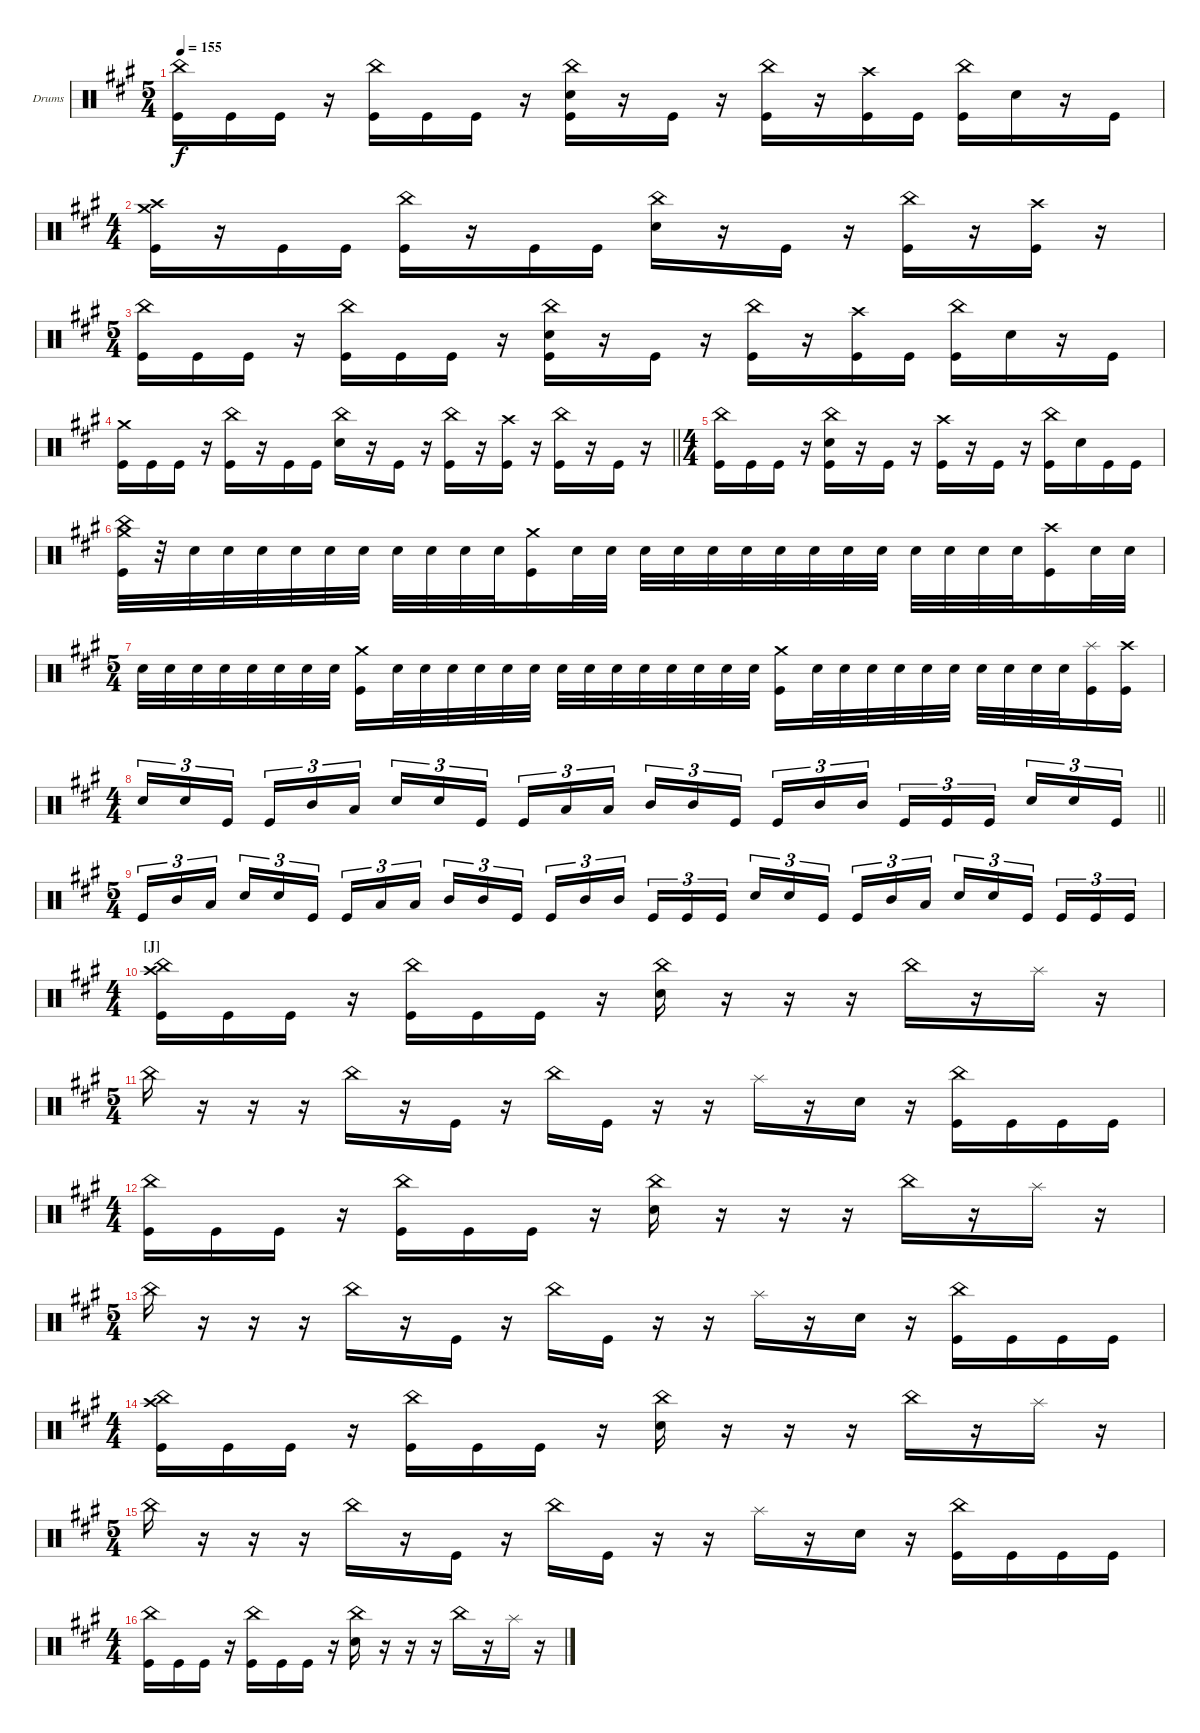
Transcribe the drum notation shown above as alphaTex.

\bracketExtendMode groupsimilarinstruments
\firstSystemTrackNameOrientation horizontal
\otherSystemsTrackNameOrientation horizontal
\track ("Drumkit" "Drums") {instrument percussion}
\staff {score}
\articulation defaults
\ts (5 4)
\tempo 155
\clef neutral
\ks a
("China (hit)" "Kick (hit)").16{dy f} "Kick (hit)".16 "Kick (hit)".16 r.16 ("China (hit)" "Kick (hit)").16 "Kick (hit)".16 "Kick (hit)".16 r.16 ("China (hit)" "Snare (hit) 2" "Kick (hit)").16 r.16 "Kick (hit)".16 r.16 ("China (hit)" "Kick (hit)").16 r.16 ("Crash high (hit)" "Kick (hit)").16 "Kick (hit)".16 ("China (hit)" "Kick (hit)").16 "Snare (hit) 2".16 r.16 "Kick (hit)".16 |
\ts (4 4)
("Crash medium (hit)" "Crash high (hit)" "Kick (hit)").16 r.16 "Kick (hit)".16 "Kick (hit)".16 ("China (hit)" "Kick (hit)").16 r.16 "Kick (hit)".16 "Kick (hit)".16 ("China (hit)" "Snare (hit) 2").16 r.16 "Kick (hit)".16 r.16 ("China (hit)" "Kick (hit)").16 r.16 ("Crash high (hit)" "Kick (hit)").16 r.16 |
\ts (5 4)
("China (hit)" "Kick (hit)").16 "Kick (hit)".16 "Kick (hit)".16 r.16 ("China (hit)" "Kick (hit)").16 "Kick (hit)".16 "Kick (hit)".16 r.16 ("China (hit)" "Snare (hit) 2" "Kick (hit)").16 r.16 "Kick (hit)".16 r.16 ("China (hit)" "Kick (hit)").16 r.16 ("Crash high (hit)" "Kick (hit)").16 "Kick (hit)".16 ("China (hit)" "Kick (hit)").16 "Snare (hit) 2".16 r.16 "Kick (hit)".16 |
\barLineRight lightlight
("Crash medium (hit)" "Kick (hit)").16 "Kick (hit)".16 "Kick (hit)".16 r.16 ("China (hit)" "Kick (hit)").16 r.16 "Kick (hit)".16 "Kick (hit)".16 ("China (hit)" "Snare (hit) 2").16 r.16 "Kick (hit)".16 r.16 ("China (hit)" "Kick (hit)").16 r.16 ("Crash high (hit)" "Kick (hit)").16 r.16 ("China (hit)" "Kick (hit)").16 r.16 "Kick (hit)".16 r.16 |
\ts (4 4)
("China (hit)" "Kick (hit)").16 "Kick (hit)".16 "Kick (hit)".16 r.16 ("China (hit)" "Snare (hit) 2" "Kick (hit)").16 r.16 "Kick (hit)".16 r.16 ("Crash high (hit)" "Kick (hit)").16 r.16 "Kick (hit)".16 r.16 ("China (hit)" "Kick (hit)").16 "Snare (hit) 2".16 "Kick (hit)".16 "Kick (hit)".16 |
("Crash medium (hit)" "China (hit)" "Kick (hit)").32 r.32 "Snare (hit) 2".32 "Snare (hit) 2".32 "Snare (hit) 2".32 "Snare (hit) 2".32 "Snare (hit) 2".32 "Snare (hit) 2".32 "Snare (hit) 2".32 "Snare (hit) 2".32 "Snare (hit) 2".32 "Snare (hit) 2".32 ("Crash medium (hit)" "Kick (hit)").16 "Snare (hit) 2".32 "Snare (hit) 2".32 "Snare (hit) 2".32 "Snare (hit) 2".32 "Snare (hit) 2".32 "Snare (hit) 2".32 "Snare (hit) 2".32 "Snare (hit) 2".32 "Snare (hit) 2".32 "Snare (hit) 2".32 "Snare (hit) 2".32 "Snare (hit) 2".32 "Snare (hit) 2".32 "Snare (hit) 2".32 ("Crash high (hit)" "Kick (hit)").16 "Snare (hit) 2".32 "Snare (hit) 2".32 |
\ts (5 4)
"Snare (hit) 2".32 "Snare (hit) 2".32 "Snare (hit) 2".32 "Snare (hit) 2".32 "Snare (hit) 2".32 "Snare (hit) 2".32 "Snare (hit) 2".32 "Snare (hit) 2".32 ("Crash medium (hit)" "Kick (hit)").16 "Snare (hit) 2".32 "Snare (hit) 2".32 "Snare (hit) 2".32 "Snare (hit) 2".32 "Snare (hit) 2".32 "Snare (hit) 2".32 "Snare (hit) 2".32 "Snare (hit) 2".32 "Snare (hit) 2".32 "Snare (hit) 2".32 "Snare (hit) 2".32 "Snare (hit) 2".32 "Snare (hit) 2".32 "Snare (hit) 2".32 ("Crash medium (hit)" "Kick (hit)").16 "Snare (hit) 2".32 "Snare (hit) 2".32 "Snare (hit) 2".32 "Snare (hit) 2".32 "Snare (hit) 2".32 "Snare (hit) 2".32 "Snare (hit) 2".32 "Snare (hit) 2".32 "Snare (hit) 2".32 "Snare (hit) 2".32 ("Splash (hit)" "Kick (hit)").16 ("Crash high (hit)" "Kick (hit)").16 |
\ts (4 4)
\barLineRight lightlight "Snare (hit) 2".16{tu (3 2)} "Snare (hit) 2".16{tu (3 2)} "Kick (hit)".16{tu (3 2)} "Kick (hit)".16{tu (3 2)} "Mid Tom (hit)".16{tu (3 2)} "Low Tom (hit)".16{tu (3 2)} "Snare (hit) 2".16{tu (3 2)} "Snare (hit) 2".16{tu (3 2)} "Kick (hit)".16{tu (3 2)} "Kick (hit)".16{tu (3 2)} "Low Tom (hit)".16{tu (3 2)} "Low Tom (hit)".16{tu (3 2)} "Mid Tom (hit)".16{tu (3 2)} "Mid Tom (hit)".16{tu (3 2)} "Kick (hit)".16{tu (3 2)} "Kick (hit)".16{tu (3 2)} "Mid Tom (hit)".16{tu (3 2)} "Mid Tom (hit)".16{tu (3 2)} "Kick (hit)".16{tu (3 2)} "Kick (hit)".16{tu (3 2)} "Kick (hit)".16{tu (3 2)} "Snare (hit) 2".16{tu (3 2)} "Snare (hit) 2".16{tu (3 2)} "Kick (hit)".16{tu (3 2)}
|
\ts (5 4)
"Kick (hit)".16{tu (3 2)} "Mid Tom (hit)".16{tu (3 2)} "Low Tom (hit)".16{tu (3 2)} "Snare (hit) 2".16{tu (3 2)} "Snare (hit) 2".16{tu (3 2)} "Kick (hit)".16{tu (3 2)} "Kick (hit)".16{tu (3 2)} "Low Tom (hit)".16{tu (3 2)} "Low Tom (hit)".16{tu (3 2)} "Mid Tom (hit)".16{tu (3 2)} "Mid Tom (hit)".16{tu (3 2)} "Kick (hit)".16{tu (3 2)} "Kick (hit)".16{tu (3 2)} "Mid Tom (hit)".16{tu (3 2)} "Mid Tom (hit)".16{tu (3 2)} "Kick (hit)".16{tu (3 2)} "Kick (hit)".16{tu (3 2)} "Kick (hit)".16{tu (3 2)} "Snare (hit) 2".16{tu (3 2)} "Snare (hit) 2".16{tu (3 2)} "Kick (hit)".16{tu (3 2)} "Kick (hit)".16{tu (3 2)} "Mid Tom (hit)".16{tu (3 2)} "Low Tom (hit)".16{tu (3 2)} "Snare (hit) 2".16{tu (3 2)} "Snare (hit) 2".16{tu (3 2)} "Kick (hit)".16{tu (3 2)} "Kick (hit)".16{tu (3 2)} "Kick (hit)".16{tu (3 2)} "Kick (hit)".16{tu (3 2)} |
\ts (4 4)
\section ("J" "")
("China (hit)" "Crash high (hit)" "Kick (hit)").16 "Kick (hit)".16 "Kick (hit)".16 r.16 ("China (hit)" "Kick (hit)").16 "Kick (hit)".16 "Kick (hit)".16 r.16 ("China (hit)" "Snare (hit) 2").16 r.16 r.16 r.16 "China (hit)".16 r.16 "Splash (hit)".16 r.16 |
\ts (5 4)
"China (hit)".16 r.16 r.16 r.16 "China (hit)".16 r.16 "Kick (hit)".16 r.16 "China (hit)".16 "Kick (hit)".16 r.16 r.16 "Splash (hit)".16 r.16 "Snare (hit) 2".16 r.16 ("China (hit)" "Kick (hit)").16 "Kick (hit)".16 "Kick (hit)".16 "Kick (hit)".16 |
\ts (4 4)
("China (hit)" "Kick (hit)").16 "Kick (hit)".16 "Kick (hit)".16 r.16 ("China (hit)" "Kick (hit)").16 "Kick (hit)".16 "Kick (hit)".16 r.16 ("China (hit)" "Snare (hit) 2").16 r.16 r.16 r.16 "China (hit)".16 r.16 "Splash (hit)".16 r.16 |
\ts (5 4)
"China (hit)".16 r.16 r.16 r.16 "China (hit)".16 r.16 "Kick (hit)".16 r.16 "China (hit)".16 "Kick (hit)".16 r.16 r.16 "Splash (hit)".16 r.16 "Snare (hit) 2".16 r.16 ("China (hit)" "Kick (hit)").16 "Kick (hit)".16 "Kick (hit)".16 "Kick (hit)".16 |
\ts (4 4)
("China (hit)" "Crash high (hit)" "Kick (hit)").16 "Kick (hit)".16 "Kick (hit)".16 r.16 ("China (hit)" "Kick (hit)").16 "Kick (hit)".16 "Kick (hit)".16 r.16 ("China (hit)" "Snare (hit) 2").16 r.16 r.16 r.16 "China (hit)".16 r.16 "Splash (hit)".16 r.16 |
\ts (5 4)
"China (hit)".16 r.16 r.16 r.16 "China (hit)".16 r.16 "Kick (hit)".16 r.16 "China (hit)".16 "Kick (hit)".16 r.16 r.16 "Splash (hit)".16 r.16 "Snare (hit) 2".16 r.16 ("China (hit)" "Kick (hit)").16 "Kick (hit)".16 "Kick (hit)".16 "Kick (hit)".16 |
\ts (4 4)
("China (hit)" "Kick (hit)").16 "Kick (hit)".16 "Kick (hit)".16 r.16 ("China (hit)" "Kick (hit)").16 "Kick (hit)".16 "Kick (hit)".16 r.16 ("China (hit)" "Snare (hit) 2").16 r.16 r.16 r.16 "China (hit)".16 r.16 "Splash (hit)".16 r.16
